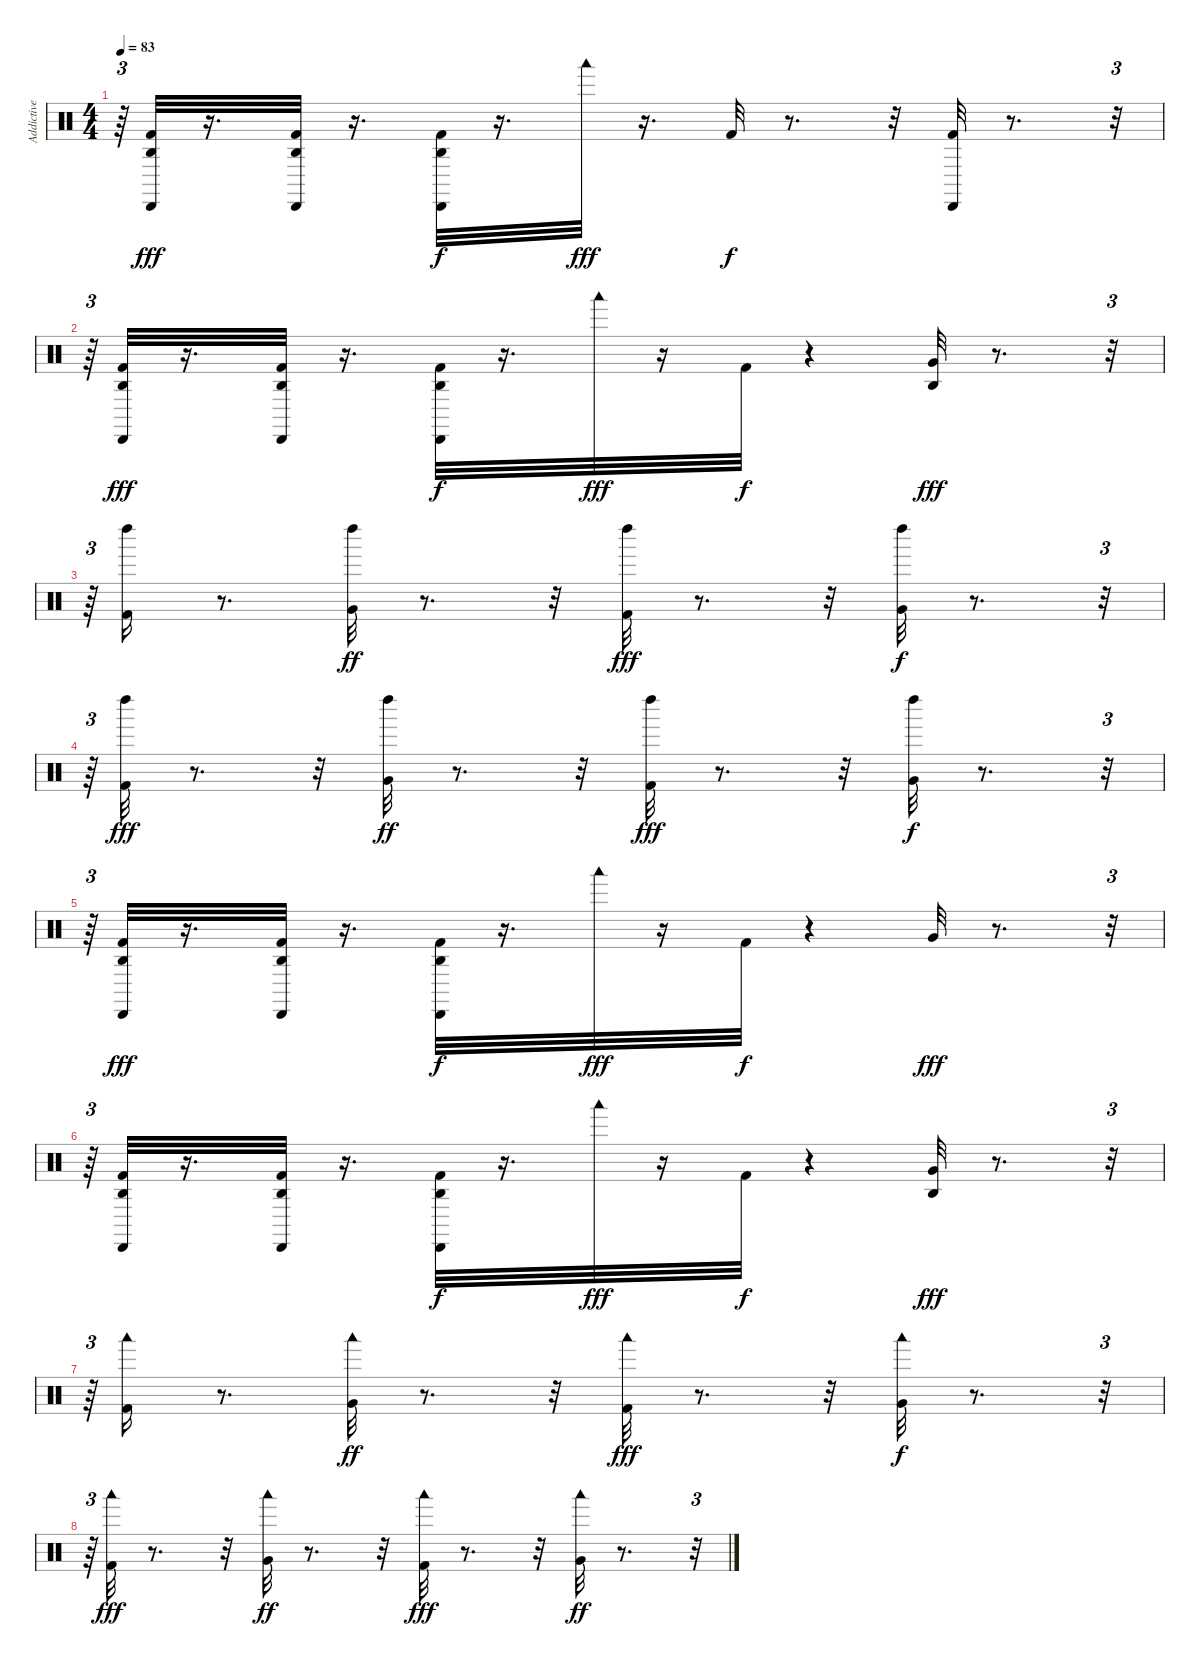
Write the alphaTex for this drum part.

\track ("Addictive Drums 2 01" "Addictive ") {instrument percussion}
\staff {score}
\articulation defaults
\ts (4 4)
\tempo 83
\clef neutral
\ks c
r.64{tu (3 2) dy f} ("Kick (hit) 2" "Cabasa (hit)" "Agogo high (hit)").32{dy fff} r.16{d} ("Kick (hit) 2" "Cabasa (hit)" "Agogo high (hit)").32 r.16{d} ("Cabasa (hit)" "Kick (hit) 2" "Agogo high (hit)").32{dy f} r.16{d} "Woodblock low (hit)".32{dy fff} r.16{d} "Kick (hit) 2".32{dy f} r.8{d} r.32 ("Kick (hit) 2" "Cabasa (hit)").32 r.8{d} r.32{tu (3 2)} |
r.64{tu (3 2)} ("Kick (hit) 2" "Cabasa (hit)" "Agogo high (hit)").32{dy fff} r.16{d} ("Kick (hit) 2" "Cabasa (hit)" "Agogo high (hit)").32 r.16{d} ("Cabasa (hit)" "Kick (hit) 2" "Agogo high (hit)").32{dy f} r.16{d} "Woodblock low (hit)".32{dy fff} r.16 "Kick (hit) 2".32{dy f} r.4 ("Very Low Tom (hit)" "Agogo high (hit)").32{dy fff} r.8{d} r.32{tu (3 2)} |
r.64{tu (3 2)} ("Kick (hit) 2" "Left Maraca (hit)").16 r.8{d} ("Left Maraca (hit)" "Very Low Tom (hit)").32{dy ff} r.8{d} r.32 ("Kick (hit) 2" "Left Maraca (hit)").32{dy fff} r.8{d} r.32 ("Very Low Tom (hit)" "Left Maraca (hit)").32{dy f} r.8{d} r.32{tu (3 2)} |
r.64{tu (3 2)} ("Left Maraca (hit)" "Kick (hit) 2").32{dy fff} r.8{d} r.32 ("Very Low Tom (hit)" "Left Maraca (hit)").32{dy ff} r.8{d} r.32 ("Kick (hit) 2" "Left Maraca (hit)").32{dy fff} r.8{d} r.32 ("Very Low Tom (hit)" "Left Maraca (hit)").32{dy f} r.8{d} r.32{tu (3 2)} |
r.64{tu (3 2)} ("Kick (hit) 2" "Cabasa (hit)" "Agogo high (hit)").32{dy fff} r.16{d} ("Kick (hit) 2" "Cabasa (hit)" "Agogo high (hit)").32 r.16{d} ("Cabasa (hit)" "Kick (hit) 2" "Agogo high (hit)").32{dy f} r.16{d} "Woodblock low (hit)".32{dy fff} r.16 "Kick (hit) 2".32{dy f} r.4 "Very Low Tom (hit)".32{dy fff} r.8{d} r.32{tu (3 2)} |
r.64{tu (3 2)} ("Kick (hit) 2" "Cabasa (hit)" "Agogo high (hit)").32 r.16{d} ("Kick (hit) 2" "Cabasa (hit)" "Agogo high (hit)").32 r.16{d} ("Cabasa (hit)" "Kick (hit) 2" "Agogo high (hit)").32{dy f} r.16{d} "Woodblock low (hit)".32{dy fff} r.16 "Kick (hit) 2".32{dy f} r.4 ("Very Low Tom (hit)" "Agogo high (hit)").32{dy fff} r.8{d} r.32{tu (3 2)} |
r.64{tu (3 2)} ("Woodblock low (hit)" "Kick (hit) 2").16 r.8{d} ("Woodblock low (hit)" "Very Low Tom (hit)").32{dy ff} r.8{d} r.32 ("Kick (hit) 2" "Woodblock low (hit)").32{dy fff} r.8{d} r.32 ("Very Low Tom (hit)" "Woodblock low (hit)").32{dy f} r.8{d} r.32{tu (3 2)} |
r.64{tu (3 2)} ("Woodblock low (hit)" "Kick (hit) 2").32{dy fff} r.8{d} r.32 ("Very Low Tom (hit)" "Woodblock low (hit)").32{dy ff} r.8{d} r.32 ("Kick (hit) 2" "Woodblock low (hit)").32{dy fff} r.8{d} r.32 ("Very Low Tom (hit)" "Woodblock low (hit)").32{dy ff} r.8{d} r.32{tu (3 2)}
